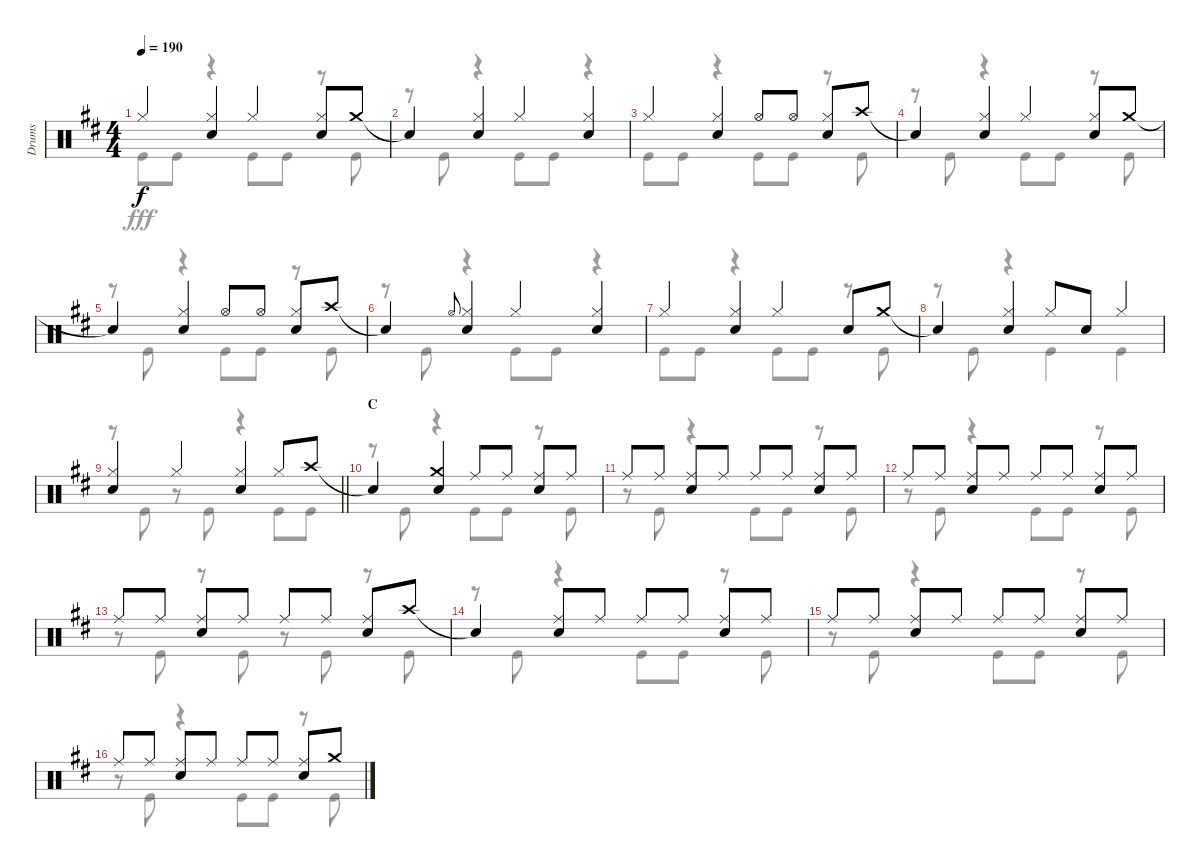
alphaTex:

\track ("Drums" "Drums") {instrument percussion}
\staff {score}
\articulation defaults
\voice
\ts (4 4)
\tempo 190
\clef neutral
\ks d "Hi-Hat (closed)".4{dy f}
("Hi-Hat (closed)" "Snare (hit) 2").4 "Hi-Hat (closed)".4 ("Hi-Hat (closed)" "Snare (hit) 2").8 "Crash medium (hit)".8 |
"Snare (hit)"{t}.4 ("Hi-Hat (closed)" "Snare (hit) 2").4 "Hi-Hat (closed)".4 ("Hi-Hat (closed)" "Snare (hit) 2").4 |
"Hi-Hat (closed)".4 ("Hi-Hat (closed)" "Snare (hit) 2").4 "Hi-Hat (open)".8 "Hi-Hat (open)".8 ("Hi-Hat (closed)" "Snare (hit) 2").8 "Crash high (hit)".8 |
"Snare (hit)"{t}.4 ("Hi-Hat (closed)" "Snare (hit) 2").4 "Hi-Hat (closed)".4 ("Hi-Hat (closed)" "Snare (hit) 2").8 "Crash medium (hit)".8 |
"Snare (hit)"{t}.4 ("Hi-Hat (closed)" "Snare (hit) 2").4 "Hi-Hat (open)".8 "Hi-Hat (open)".8 ("Hi-Hat (closed)" "Snare (hit) 2").8 "Crash high (hit)".8 |
"Snare (hit)"{t}.4 "Hi-Hat (open)".8{gr onbeat} ("Hi-Hat (closed)" "Snare (hit) 2").4 "Hi-Hat (closed)".4 ("Hi-Hat (closed)" "Snare (hit) 2").4 |
"Hi-Hat (closed)".4 ("Hi-Hat (closed)" "Snare (hit) 2").4 "Hi-Hat (closed)".4 "Snare (hit) 2".8 "Crash medium (hit)".8 |
"Snare (hit)"{t}.4 ("Hi-Hat (closed)" "Snare (hit) 2").4 "Hi-Hat (closed)".8 "Snare (hit) 2".8 "Hi-Hat (closed)".4 |
\barLineRight lightlight
("Hi-Hat (closed)" "Snare (hit) 2").4 "Hi-Hat (closed)".4 ("Hi-Hat (closed)" "Snare (hit) 2").4 "Hi-Hat (closed)".8 "Crash high (hit)".8 |
\section ("" "C")
"Snare (hit)"{t}.4 ("Crash medium (hit)" "Snare (hit) 2").4 "Ride (middle)".8 "Ride (middle)".8 ("Ride (middle)" "Snare (hit) 2").8 "Ride (middle)".8 |
"Ride (middle)".8 "Ride (middle)".8 ("Ride (middle)" "Snare (hit) 2").8 "Ride (middle)".8 "Ride (middle)".8 "Ride (middle)".8 ("Ride (middle)" "Snare (hit) 2").8 "Ride (middle)".8 |
"Ride (middle)".8 "Ride (middle)".8 ("Ride (middle)" "Snare (hit) 2").8 "Ride (middle)".8 "Ride (middle)".8 "Ride (middle)".8 ("Ride (middle)" "Snare (hit) 2").8 "Ride (middle)".8 |
"Ride (middle)".8 "Ride (middle)".8 ("Ride (middle)" "Snare (hit) 2").8 "Ride (middle)".8 "Ride (middle)".8 "Ride (middle)".8 ("Ride (middle)" "Snare (hit) 2").8 "Crash high (hit)".8 |
"Snare (hit)"{t}.4 ("Ride (middle)" "Snare (hit) 2").8 "Ride (middle)".8 "Ride (middle)".8 "Ride (middle)".8 ("Ride (middle)" "Snare (hit) 2").8 "Ride (middle)".8 |
"Ride (middle)".8 "Ride (middle)".8 ("Ride (middle)" "Snare (hit) 2").8 "Ride (middle)".8 "Ride (middle)".8 "Ride (middle)".8 ("Ride (middle)" "Snare (hit) 2").8 "Ride (middle)".8 |
"Ride (middle)".8 "Ride (middle)".8 ("Ride (middle)" "Snare (hit) 2").8 "Ride (middle)".8 "Ride (middle)".8 "Ride (middle)".8 ("Ride (middle)" "Snare (hit) 2").8 "Crash medium (hit)".8
\voice
\clef neutral
\ottava regular
\simile none
\ks d "Kick (hit)".8{dy fff} "Kick (hit)".8
r.4 "Kick (hit)".8 "Kick (hit)".8 r.8 "Kick (hit)".8 |
r.8 "Kick (hit)".8 r.4 "Kick (hit)".8 "Kick (hit)".8 r.4 |
"Kick (hit)".8 "Kick (hit)".8 r.4 "Kick (hit)".8 "Kick (hit)".8 r.8 "Kick (hit)".8 |
r.8 "Kick (hit)".8 r.4 "Kick (hit)".8 "Kick (hit)".8 r.8 "Kick (hit)".8 |
r.8 "Kick (hit)".8 r.4 "Kick (hit)".8 "Kick (hit)".8 r.8 "Kick (hit)".8 |
r.8 "Kick (hit)".8 r.4 "Kick (hit)".8 "Kick (hit)".8 r.4 |
"Kick (hit)".8 "Kick (hit)".8 r.4 "Kick (hit)".8 "Kick (hit)".8 r.8 "Kick (hit)".8 |
r.8 "Kick (hit)".8 r.4 "Kick (hit)".4 "Kick (hit)".4 |
\barLineRight lightlight
r.8 "Kick (hit)".8 r.8 "Kick (hit)".8 r.4 "Kick (hit)".8 "Kick (hit)".8 |
r.8 "Kick (hit)".8 r.4 "Kick (hit)".8 "Kick (hit)".8 r.8 "Kick (hit)".8 |
r.8 "Kick (hit)".8 r.4 "Kick (hit)".8 "Kick (hit)".8 r.8 "Kick (hit)".8 |
r.8 "Kick (hit)".8 r.4 "Kick (hit)".8 "Kick (hit)".8 r.8 "Kick (hit)".8 |
r.8 "Kick (hit)".8 r.8 "Kick (hit)".8 r.8 "Kick (hit)".8 r.8 "Kick (hit)".8 |
r.8 "Kick (hit)".8 r.4 "Kick (hit)".8 "Kick (hit)".8 r.8 "Kick (hit)".8 |
r.8 "Kick (hit)".8 r.4 "Kick (hit)".8 "Kick (hit)".8 r.8 "Kick (hit)".8 |
r.8 "Kick (hit)".8 r.4 "Kick (hit)".8 "Kick (hit)".8 r.8 "Kick (hit)".8
